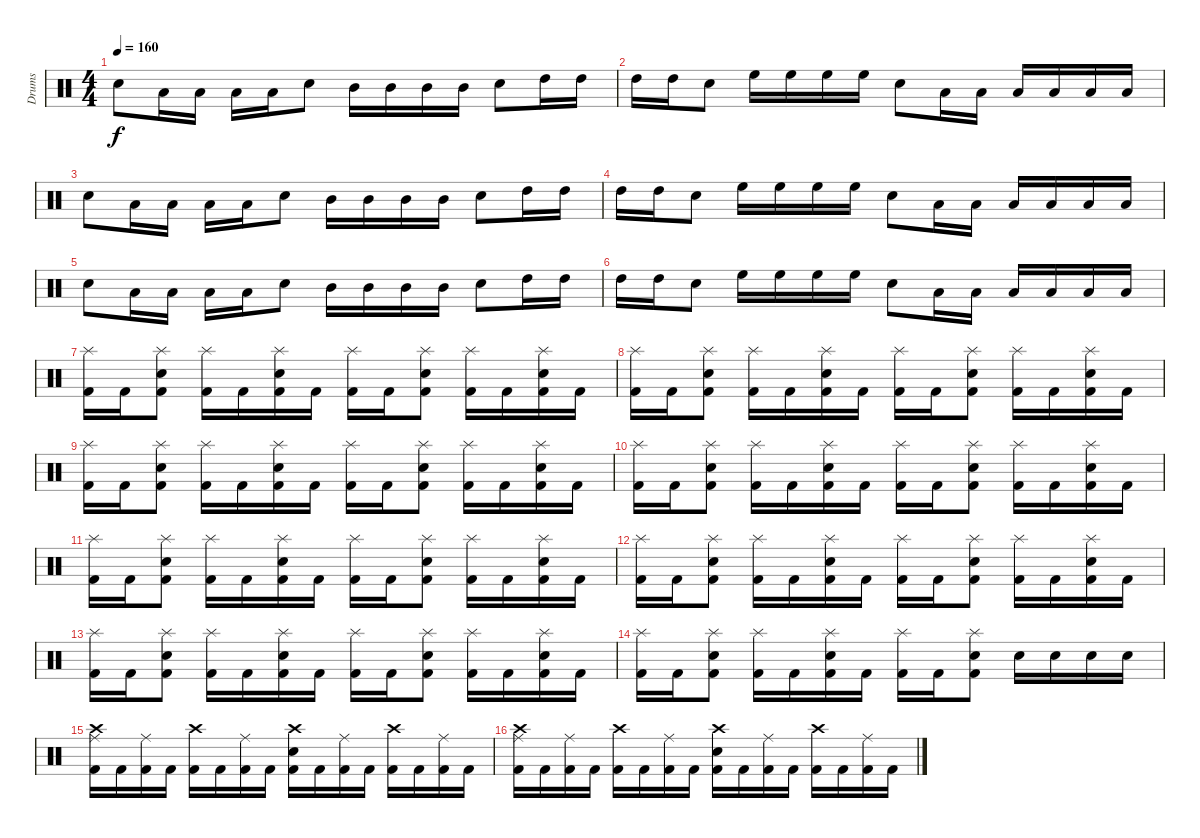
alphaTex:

\track ("Drums" "Drums") {instrument percussion}
\staff {score}
\articulation defaults
\ts (4 4)
\tempo 160
\clef neutral
\ks c "Electric Snare (hit)".8{dy f} "Low Tom (hit)".16 "Low Tom (hit)".16 "Low Tom (hit)".16 "Low Tom (hit)".16 "Electric Snare (hit)".8 "Mid Tom (hit)".16 "Mid Tom (hit)".16 "Mid Tom (hit)".16 "Mid Tom (hit)".16 "Electric Snare (hit)".8 "High Tom (hit)".16 "High Tom (hit)".16
|
"High Tom (hit)".16 "High Tom (hit)".16 "Electric Snare (hit)".8 "High Floor Tom (hit)".16 "High Floor Tom (hit)".16 "High Floor Tom (hit)".16 "High Floor Tom (hit)".16 "Electric Snare (hit)".8 "Low Tom (hit)".16 "Low Tom (hit)".16 "Low Tom (hit)".16 "Low Tom (hit)".16 "Low Tom (hit)".16 "Low Tom (hit)".16 |
"Electric Snare (hit)".8 "Low Tom (hit)".16 "Low Tom (hit)".16 "Low Tom (hit)".16 "Low Tom (hit)".16 "Electric Snare (hit)".8 "Mid Tom (hit)".16 "Mid Tom (hit)".16 "Mid Tom (hit)".16 "Mid Tom (hit)".16 "Electric Snare (hit)".8 "High Tom (hit)".16 "High Tom (hit)".16 |
"High Tom (hit)".16 "High Tom (hit)".16 "Electric Snare (hit)".8 "High Floor Tom (hit)".16 "High Floor Tom (hit)".16 "High Floor Tom (hit)".16 "High Floor Tom (hit)".16 "Electric Snare (hit)".8 "Low Tom (hit)".16 "Low Tom (hit)".16 "Low Tom (hit)".16 "Low Tom (hit)".16 "Low Tom (hit)".16 "Low Tom (hit)".16 |
"Electric Snare (hit)".8 "Low Tom (hit)".16 "Low Tom (hit)".16 "Low Tom (hit)".16 "Low Tom (hit)".16 "Electric Snare (hit)".8 "Mid Tom (hit)".16 "Mid Tom (hit)".16 "Mid Tom (hit)".16 "Mid Tom (hit)".16 "Electric Snare (hit)".8 "High Tom (hit)".16 "High Tom (hit)".16 |
"High Tom (hit)".16 "High Tom (hit)".16 "Electric Snare (hit)".8 "High Floor Tom (hit)".16 "High Floor Tom (hit)".16 "High Floor Tom (hit)".16 "High Floor Tom (hit)".16 "Electric Snare (hit)".8 "Low Tom (hit)".16 "Low Tom (hit)".16 "Low Tom (hit)".16 "Low Tom (hit)".16 "Low Tom (hit)".16 "Low Tom (hit)".16 |
("Splash (hit)" "Kick (hit) 2").16 "Kick (hit) 2".16 ("Splash (hit)" "Electric Snare (hit)" "Kick (hit) 2").8 ("Splash (hit)" "Kick (hit) 2").16 "Kick (hit) 2".16 ("Splash (hit)" "Electric Snare (hit)" "Kick (hit) 2").16 "Kick (hit) 2".16 ("Splash (hit)" "Kick (hit) 2").16 "Kick (hit) 2".16 ("Splash (hit)" "Electric Snare (hit)" "Kick (hit) 2").8 ("Splash (hit)" "Kick (hit) 2").16 "Kick (hit) 2".16 ("Splash (hit)" "Electric Snare (hit)" "Kick (hit) 2").16 "Kick (hit) 2".16 |
("Splash (hit)" "Kick (hit) 2").16 "Kick (hit) 2".16 ("Splash (hit)" "Electric Snare (hit)" "Kick (hit) 2").8 ("Splash (hit)" "Kick (hit) 2").16 "Kick (hit) 2".16 ("Splash (hit)" "Electric Snare (hit)" "Kick (hit) 2").16 "Kick (hit) 2".16 ("Splash (hit)" "Kick (hit) 2").16 "Kick (hit) 2".16 ("Splash (hit)" "Electric Snare (hit)" "Kick (hit) 2").8 ("Splash (hit)" "Kick (hit) 2").16 "Kick (hit) 2".16 ("Splash (hit)" "Electric Snare (hit)" "Kick (hit) 2").16 "Kick (hit) 2".16 |
("Splash (hit)" "Kick (hit) 2").16 "Kick (hit) 2".16 ("Splash (hit)" "Electric Snare (hit)" "Kick (hit) 2").8 ("Splash (hit)" "Kick (hit) 2").16 "Kick (hit) 2".16 ("Splash (hit)" "Electric Snare (hit)" "Kick (hit) 2").16 "Kick (hit) 2".16 ("Splash (hit)" "Kick (hit) 2").16 "Kick (hit) 2".16 ("Splash (hit)" "Electric Snare (hit)" "Kick (hit) 2").8 ("Splash (hit)" "Kick (hit) 2").16 "Kick (hit) 2".16 ("Splash (hit)" "Electric Snare (hit)" "Kick (hit) 2").16 "Kick (hit) 2".16 |
("Splash (hit)" "Kick (hit) 2").16 "Kick (hit) 2".16 ("Splash (hit)" "Electric Snare (hit)" "Kick (hit) 2").8 ("Splash (hit)" "Kick (hit) 2").16 "Kick (hit) 2".16 ("Splash (hit)" "Electric Snare (hit)" "Kick (hit) 2").16 "Kick (hit) 2".16 ("Splash (hit)" "Kick (hit) 2").16 "Kick (hit) 2".16 ("Splash (hit)" "Electric Snare (hit)" "Kick (hit) 2").8 ("Splash (hit)" "Kick (hit) 2").16 "Kick (hit) 2".16 ("Splash (hit)" "Electric Snare (hit)" "Kick (hit) 2").16 "Kick (hit) 2".16 |
("Splash (hit)" "Kick (hit) 2").16 "Kick (hit) 2".16 ("Splash (hit)" "Electric Snare (hit)" "Kick (hit) 2").8 ("Splash (hit)" "Kick (hit) 2").16 "Kick (hit) 2".16 ("Splash (hit)" "Electric Snare (hit)" "Kick (hit) 2").16 "Kick (hit) 2".16 ("Splash (hit)" "Kick (hit) 2").16 "Kick (hit) 2".16 ("Splash (hit)" "Electric Snare (hit)" "Kick (hit) 2").8 ("Splash (hit)" "Kick (hit) 2").16 "Kick (hit) 2".16 ("Splash (hit)" "Electric Snare (hit)" "Kick (hit) 2").16 "Kick (hit) 2".16 |
("Splash (hit)" "Kick (hit) 2").16 "Kick (hit) 2".16 ("Splash (hit)" "Electric Snare (hit)" "Kick (hit) 2").8 ("Splash (hit)" "Kick (hit) 2").16 "Kick (hit) 2".16 ("Splash (hit)" "Electric Snare (hit)" "Kick (hit) 2").16 "Kick (hit) 2".16 ("Splash (hit)" "Kick (hit) 2").16 "Kick (hit) 2".16 ("Splash (hit)" "Electric Snare (hit)" "Kick (hit) 2").8 ("Splash (hit)" "Kick (hit) 2").16 "Kick (hit) 2".16 ("Splash (hit)" "Electric Snare (hit)" "Kick (hit) 2").16 "Kick (hit) 2".16 |
("Splash (hit)" "Kick (hit) 2").16 "Kick (hit) 2".16 ("Splash (hit)" "Electric Snare (hit)" "Kick (hit) 2").8 ("Splash (hit)" "Kick (hit) 2").16 "Kick (hit) 2".16 ("Splash (hit)" "Electric Snare (hit)" "Kick (hit) 2").16 "Kick (hit) 2".16 ("Splash (hit)" "Kick (hit) 2").16 "Kick (hit) 2".16 ("Splash (hit)" "Electric Snare (hit)" "Kick (hit) 2").8 ("Splash (hit)" "Kick (hit) 2").16 "Kick (hit) 2".16 ("Splash (hit)" "Electric Snare (hit)" "Kick (hit) 2").16 "Kick (hit) 2".16 |
("Splash (hit)" "Kick (hit) 2").16 "Kick (hit) 2".16 ("Splash (hit)" "Electric Snare (hit)" "Kick (hit) 2").8 ("Splash (hit)" "Kick (hit) 2").16 "Kick (hit) 2".16 ("Splash (hit)" "Electric Snare (hit)" "Kick (hit) 2").16 "Kick (hit) 2".16 ("Splash (hit)" "Kick (hit) 2").16 "Kick (hit) 2".16 ("Splash (hit)" "Electric Snare (hit)" "Kick (hit) 2").8 "Electric Snare (hit)".16 "Electric Snare (hit)".16 "Electric Snare (hit)".16 "Electric Snare (hit)".16 |
\section ("" " ")
("Crash high (hit)" "Ride (middle)" "Kick (hit) 2").16 "Kick (hit) 2".16 ("Ride (middle)" "Kick (hit) 2").16 "Kick (hit) 2".16 ("Crash high (hit)" "Kick (hit) 2").16 "Kick (hit) 2".16 ("Ride (middle)" "Kick (hit) 2").16 "Kick (hit) 2".16 ("Crash high (hit)" "Electric Snare (hit)" "Kick (hit) 2").16 "Kick (hit) 2".16 ("Ride (middle)" "Kick (hit) 2").16 "Kick (hit) 2".16 ("Crash high (hit)" "Kick (hit) 2").16 "Kick (hit) 2".16 ("Ride (middle)" "Kick (hit) 2").16 "Kick (hit) 2".16 |
("Crash high (hit)" "Ride (middle)" "Kick (hit) 2").16 "Kick (hit) 2".16 ("Ride (middle)" "Kick (hit) 2").16 "Kick (hit) 2".16 ("Crash high (hit)" "Kick (hit) 2").16 "Kick (hit) 2".16 ("Ride (middle)" "Kick (hit) 2").16 "Kick (hit) 2".16 ("Crash high (hit)" "Electric Snare (hit)" "Kick (hit) 2").16 "Kick (hit) 2".16 ("Ride (middle)" "Kick (hit) 2").16 "Kick (hit) 2".16 ("Crash high (hit)" "Kick (hit) 2").16 "Kick (hit) 2".16 ("Ride (middle)" "Kick (hit) 2").16 "Kick (hit) 2".16
